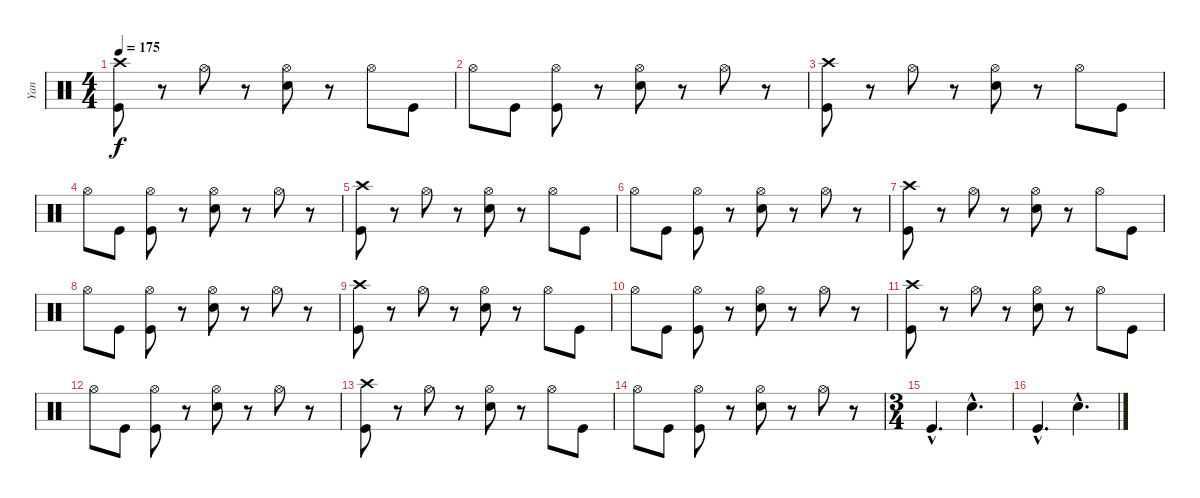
\track ("Yan" "Yan") {instrument percussion}
\staff {score}
\articulation defaults
\ts (4 4)
\tempo 175
\clef neutral
\ks c
("Crash high (hit)" "Kick (hit)").8{dy f} r.8 "Hi-Hat (open)".8 r.8 ("Hi-Hat (open)" "Snare (hit) 2").8 r.8 "Hi-Hat (open)".8 "Kick (hit)".8 |
"Hi-Hat (open)".8 "Kick (hit)".8 ("Hi-Hat (open)" "Kick (hit)").8 r.8 ("Hi-Hat (open)" "Snare (hit) 2").8 r.8 "Hi-Hat (open)".8 r.8 |
("Crash high (hit)" "Kick (hit)").8 r.8 "Hi-Hat (open)".8 r.8 ("Hi-Hat (open)" "Snare (hit) 2").8 r.8 "Hi-Hat (open)".8 "Kick (hit)".8 |
"Hi-Hat (open)".8 "Kick (hit)".8 ("Hi-Hat (open)" "Kick (hit)").8 r.8 ("Hi-Hat (open)" "Snare (hit) 2").8 r.8 "Hi-Hat (open)".8 r.8 |
("Crash high (hit)" "Kick (hit)").8 r.8 "Hi-Hat (open)".8 r.8 ("Hi-Hat (open)" "Snare (hit) 2").8 r.8 "Hi-Hat (open)".8 "Kick (hit)".8 |
"Hi-Hat (open)".8 "Kick (hit)".8 ("Hi-Hat (open)" "Kick (hit)").8 r.8 ("Hi-Hat (open)" "Snare (hit) 2").8 r.8 "Hi-Hat (open)".8 r.8 |
("Crash high (hit)" "Kick (hit)").8 r.8 "Hi-Hat (open)".8 r.8 ("Hi-Hat (open)" "Snare (hit) 2").8 r.8 "Hi-Hat (open)".8 "Kick (hit)".8 |
"Hi-Hat (open)".8 "Kick (hit)".8 ("Hi-Hat (open)" "Kick (hit)").8 r.8 ("Hi-Hat (open)" "Snare (hit) 2").8 r.8 "Hi-Hat (open)".8 r.8 |
("Crash high (hit)" "Kick (hit)").8 r.8 "Hi-Hat (open)".8 r.8 ("Hi-Hat (open)" "Snare (hit) 2").8 r.8 "Hi-Hat (open)".8 "Kick (hit)".8 |
"Hi-Hat (open)".8 "Kick (hit)".8 ("Hi-Hat (open)" "Kick (hit)").8 r.8 ("Hi-Hat (open)" "Snare (hit) 2").8 r.8 "Hi-Hat (open)".8 r.8 |
("Crash high (hit)" "Kick (hit)").8 r.8 "Hi-Hat (open)".8 r.8 ("Hi-Hat (open)" "Snare (hit) 2").8 r.8 "Hi-Hat (open)".8 "Kick (hit)".8 |
"Hi-Hat (open)".8 "Kick (hit)".8 ("Hi-Hat (open)" "Kick (hit)").8 r.8 ("Hi-Hat (open)" "Snare (hit) 2").8 r.8 "Hi-Hat (open)".8 r.8 |
("Crash high (hit)" "Kick (hit)").8 r.8 "Hi-Hat (open)".8 r.8 ("Hi-Hat (open)" "Snare (hit) 2").8 r.8 "Hi-Hat (open)".8 "Kick (hit)".8 |
"Hi-Hat (open)".8 "Kick (hit)".8 ("Hi-Hat (open)" "Kick (hit)").8 r.8 ("Hi-Hat (open)" "Snare (hit) 2").8 r.8 "Hi-Hat (open)".8 r.8 |
\ts (3 4)
"Kick (hit)"{hac}.4{d} "Snare (hit) 2"{hac}.4{d} |
"Kick (hit)"{hac}.4{d} "Snare (hit) 2"{hac}.4{d}
